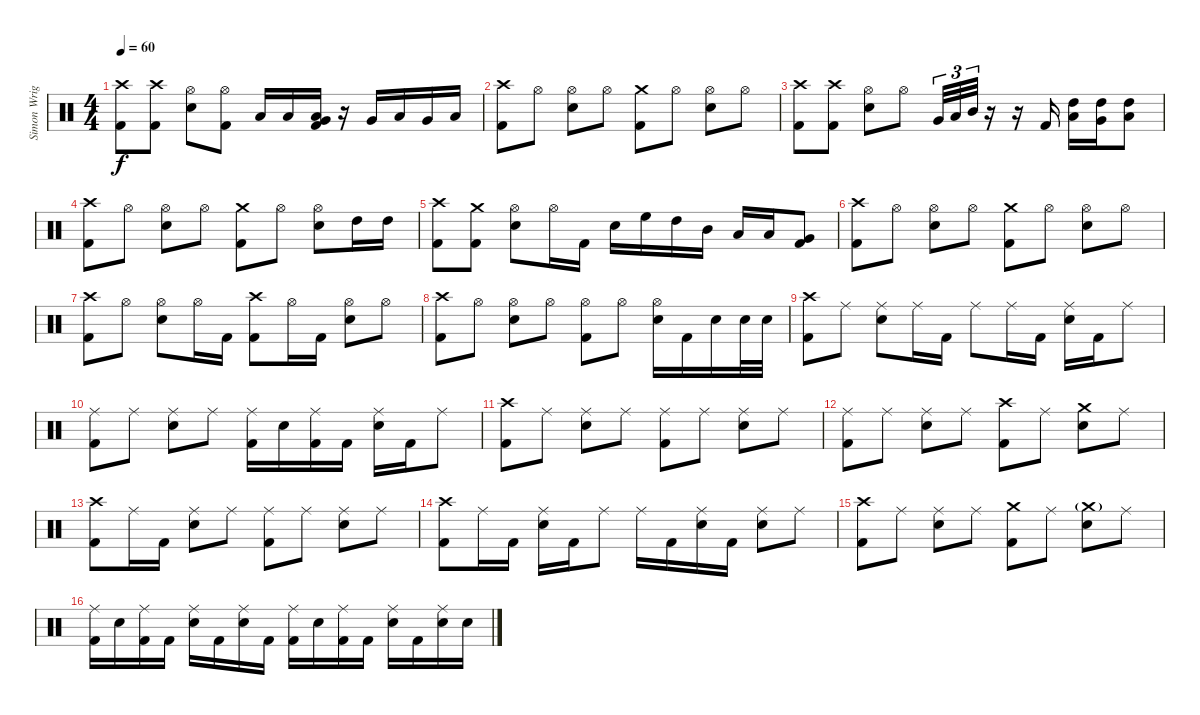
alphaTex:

\track ("Simon Wright" "Simon Wrig") {instrument percussion}
\staff {score}
\articulation defaults
\ts (4 4)
\tempo 60
\clef neutral
\ks c
("Crash high (hit)" "Kick (hit) 2").8{dy f} ("Crash high (hit)" "Kick (hit) 2").8 ("Hi-Hat (open)" "Snare (hit) 2").8 ("Hi-Hat (open)" "Kick (hit) 2").8 "Low Tom (hit)".16 "Low Tom (hit)".16 ("Low Floor Tom (hit)" "Very Low Tom (hit)" "Kick (hit) 2").16 r.16 "Very Low Tom (hit)".16 "Low Tom (hit)".16 "Very Low Tom (hit)".16 "Low Floor Tom (hit)".16 |
("Crash high (hit)" "Kick (hit) 2").8 "Hi-Hat (open)".8 ("Hi-Hat (open)" "Snare (hit) 2").8 "Hi-Hat (open)".8 ("Crash medium (hit)" "Kick (hit) 2").8 "Hi-Hat (open)".8 ("Hi-Hat (open)" "Snare (hit) 2").8 "Hi-Hat (open)".8 |
("Crash high (hit)" "Kick (hit) 2").8 ("Crash high (hit)" "Kick (hit) 2").8 ("Hi-Hat (open)" "Snare (hit) 2").8 "Hi-Hat (open)".8 "Very Low Tom (hit)".32{tu (3 2)} "Low Tom (hit)".32{tu (3 2)} "Mid Tom (hit)".32{tu (3 2)} r.16 r.16 "Kick (hit) 2".16 ("High Tom (hit)" "Low Tom (hit)").16 ("High Tom (hit)" "Very Low Tom (hit)").16 ("High Tom (hit)" "Low Floor Tom (hit)").8 |
("Crash high (hit)" "Kick (hit) 2").8 "Hi-Hat (open)".8 ("Hi-Hat (open)" "Snare (hit) 2").8 "Hi-Hat (open)".8 ("Crash medium (hit)" "Kick (hit) 2").8 "Hi-Hat (open)".8 ("Hi-Hat (open)" "Snare (hit) 2").8 "High Tom (hit)".16 "High Tom (hit)".16 |
("Crash high (hit)" "Kick (hit) 2").8 ("Crash medium (hit)" "Kick (hit) 2").8 ("Hi-Hat (open)" "Snare (hit) 2").8 "Hi-Hat (open)".16 "Kick (hit) 2".16 "Snare (hit) 2".16 "High Floor Tom (hit)".16 "High Tom (hit)".16 "Mid Tom (hit)".16 "Low Tom (hit)".16 "Low Tom (hit)".16 ("Very Low Tom (hit)" "Kick (hit) 2").8 |
("Crash high (hit)" "Kick (hit) 2").8 "Hi-Hat (open)".8 ("Hi-Hat (open)" "Snare (hit) 2").8 "Hi-Hat (open)".8 ("Crash medium (hit)" "Kick (hit) 2").8 "Hi-Hat (open)".8 ("Hi-Hat (open)" "Snare (hit) 2").8 "Hi-Hat (open)".8 |
("Crash high (hit)" "Kick (hit) 2").8 "Hi-Hat (open)".8 ("Hi-Hat (open)" "Snare (hit) 2").8 "Hi-Hat (open)".16 "Kick (hit) 2".16 ("Crash high (hit)" "Kick (hit) 2").8 "Hi-Hat (open)".16 "Kick (hit) 2".16 ("Hi-Hat (open)" "Snare (hit) 2").8 "Hi-Hat (open)".8 |
("Crash high (hit)" "Kick (hit) 2").8 "Hi-Hat (open)".8 ("Hi-Hat (open)" "Snare (hit) 2").8 "Hi-Hat (open)".8 ("Hi-Hat (open)" "Kick (hit) 2").8 "Hi-Hat (open)".8 ("Hi-Hat (open)" "Snare (hit) 2").16 "Kick (hit) 2".16 "Snare (hit) 2".16 "Snare (hit) 2".32 "Snare (hit) 2".32 |
("Crash high (hit)" "Kick (hit) 2").8 "Ride (middle)".8 ("Ride (middle)" "Snare (hit) 2").8 "Ride (middle)".16 "Kick (hit) 2".16 "Ride (middle)".8 "Ride (middle)".16 "Kick (hit) 2".16 ("Ride (middle)" "Snare (hit) 2").16 "Kick (hit) 2".16 "Ride (middle)".8 |
("Ride (middle)" "Kick (hit) 2").8 "Ride (middle)".8 ("Ride (middle)" "Snare (hit) 2").8 "Ride (middle)".8 ("Ride (middle)" "Kick (hit) 2").16 "Snare (hit) 2".16 ("Ride (middle)" "Kick (hit) 2").16 "Kick (hit) 2".16 ("Ride (middle)" "Snare (hit) 2").16 "Kick (hit) 2".16 "Ride (middle)".8 |
("Crash high (hit)" "Kick (hit) 2").8 "Ride (middle)".8 ("Ride (middle)" "Snare (hit) 2").8 "Ride (middle)".8 ("Ride (middle)" "Kick (hit) 2").8 "Ride (middle)".8 ("Ride (middle)" "Snare (hit) 2").8 "Ride (middle)".8 |
("Ride (middle)" "Kick (hit) 2").8 "Ride (middle)".8 ("Ride (middle)" "Snare (hit) 2").8 "Ride (middle)".8 ("Crash high (hit)" "Kick (hit) 2").8 "Ride (middle)".8 ("Crash medium (hit)" "Snare (hit) 2").8 "Ride (middle)".8 |
("Crash high (hit)" "Kick (hit) 2").8 "Ride (middle)".16 "Kick (hit) 2".16 ("Ride (middle)" "Snare (hit) 2").8 "Ride (middle)".8 ("Ride (middle)" "Kick (hit) 2").8 "Ride (middle)".8 ("Ride (middle)" "Snare (hit) 2").8 "Ride (middle)".8 |
("Crash high (hit)" "Kick (hit) 2").8 "Ride (middle)".16 "Kick (hit) 2".16 ("Ride (middle)" "Snare (hit) 2").16 "Kick (hit) 2".16 "Ride (middle)".8 "Ride (middle)".16 "Kick (hit) 2".16 ("Ride (middle)" "Snare (hit) 2").16 "Kick (hit) 2".16 ("Ride (middle)" "Snare (hit) 2").8 "Ride (middle)".8 |
("Crash high (hit)" "Kick (hit) 2").8 "Ride (middle)".8 ("Ride (middle)" "Snare (hit) 2").8 "Ride (middle)".8 ("Crash medium (hit)" "Kick (hit) 2").8 "Ride (middle)".8 ("Crash medium (hit)"{g} "Snare (hit) 2").8 "Ride (middle)".8 |
("Ride (middle)" "Kick (hit) 2").16 "Snare (hit) 2".16 ("Ride (middle)" "Kick (hit) 2").16 "Kick (hit) 2".16 ("Ride (middle)" "Snare (hit) 2").16 "Kick (hit) 2".16 ("Ride (middle)" "Snare (hit) 2").16 "Kick (hit) 2".16 ("Ride (middle)" "Kick (hit) 2").16 "Snare (hit) 2".16 ("Ride (middle)" "Kick (hit) 2").16 "Kick (hit) 2".16 ("Ride (middle)" "Snare (hit) 2").16 "Kick (hit) 2".16 ("Ride (middle)" "Snare (hit) 2").16 "Snare (hit) 2".16
